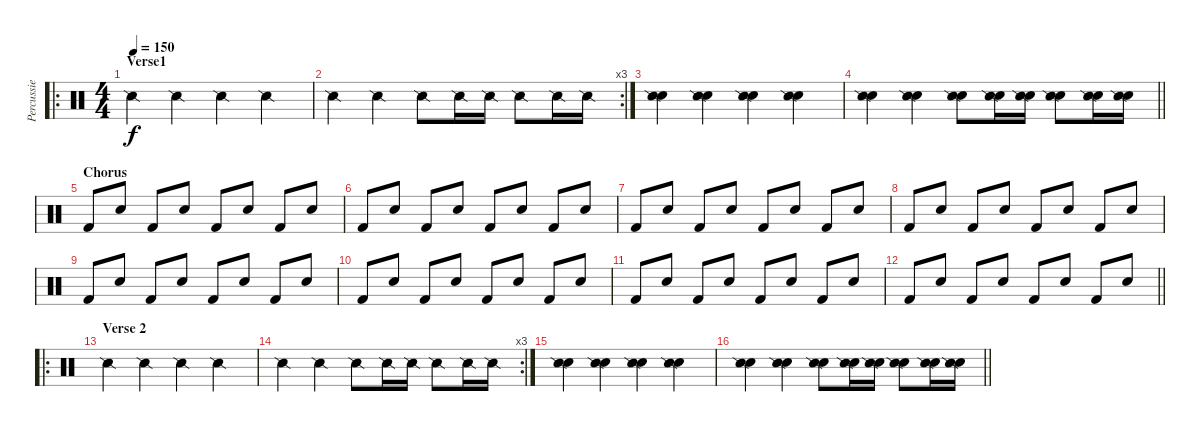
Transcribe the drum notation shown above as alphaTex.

\track ("Percussie" "Percussie") {instrument percussion}
\staff {score}
\articulation defaults
\ro
\ts (4 4)
\section ("" "Verse1")
\tempo 150
\clef neutral
\ks c "Snare (side stick) 2".4{dy f} "Snare (side stick) 2".4 "Snare (side stick) 2".4 "Snare (side stick) 2".4
|
\rc 3 "Snare (side stick) 2".4 "Snare (side stick) 2".4 "Snare (side stick) 2".8 "Snare (side stick) 2".16 "Snare (side stick) 2".16 "Snare (side stick) 2".8 "Snare (side stick) 2".16 "Snare (side stick) 2".16
|
("Snare (hit) 2" "Snare (side stick) 2").4 ("Snare (hit) 2" "Snare (side stick) 2").4 ("Snare (hit) 2" "Snare (side stick) 2").4 ("Snare (hit) 2" "Snare (side stick) 2").4 |
\barLineRight lightlight
("Snare (hit) 2" "Snare (side stick) 2").4 ("Snare (hit) 2" "Snare (side stick) 2").4 ("Snare (hit) 2" "Snare (side stick) 2").8 ("Snare (hit) 2" "Snare (side stick) 2").16 ("Snare (hit) 2" "Snare (side stick) 2").16 ("Snare (hit) 2" "Snare (side stick) 2").8 ("Snare (hit) 2" "Snare (side stick) 2").16 ("Snare (hit) 2" "Snare (side stick) 2").16 |
\section ("" "Chorus")
"Kick (hit) 2".8 "Snare (hit) 2".8 "Kick (hit) 2".8 "Snare (hit) 2".8 "Kick (hit) 2".8 "Snare (hit) 2".8 "Kick (hit) 2".8 "Snare (hit) 2".8 |
"Kick (hit) 2".8 "Snare (hit) 2".8 "Kick (hit) 2".8 "Snare (hit) 2".8 "Kick (hit) 2".8 "Snare (hit) 2".8 "Kick (hit) 2".8 "Snare (hit) 2".8 |
"Kick (hit) 2".8 "Snare (hit) 2".8 "Kick (hit) 2".8 "Snare (hit) 2".8 "Kick (hit) 2".8 "Snare (hit) 2".8 "Kick (hit) 2".8 "Snare (hit) 2".8 |
"Kick (hit) 2".8 "Snare (hit) 2".8 "Kick (hit) 2".8 "Snare (hit) 2".8 "Kick (hit) 2".8 "Snare (hit) 2".8 "Kick (hit) 2".8 "Snare (hit) 2".8 |
"Kick (hit) 2".8 "Snare (hit) 2".8 "Kick (hit) 2".8 "Snare (hit) 2".8 "Kick (hit) 2".8 "Snare (hit) 2".8 "Kick (hit) 2".8 "Snare (hit) 2".8 |
"Kick (hit) 2".8 "Snare (hit) 2".8 "Kick (hit) 2".8 "Snare (hit) 2".8 "Kick (hit) 2".8 "Snare (hit) 2".8 "Kick (hit) 2".8 "Snare (hit) 2".8 |
"Kick (hit) 2".8 "Snare (hit) 2".8 "Kick (hit) 2".8 "Snare (hit) 2".8 "Kick (hit) 2".8 "Snare (hit) 2".8 "Kick (hit) 2".8 "Snare (hit) 2".8 |
\barLineRight lightlight "Kick (hit) 2".8 "Snare (hit) 2".8 "Kick (hit) 2".8 "Snare (hit) 2".8 "Kick (hit) 2".8 "Snare (hit) 2".8 "Kick (hit) 2".8 "Snare (hit) 2".8
|
\ro
\section ("" "Verse 2")
"Snare (side stick) 2".4 "Snare (side stick) 2".4 "Snare (side stick) 2".4 "Snare (side stick) 2".4 |
\rc 3 "Snare (side stick) 2".4 "Snare (side stick) 2".4 "Snare (side stick) 2".8 "Snare (side stick) 2".16 "Snare (side stick) 2".16 "Snare (side stick) 2".8 "Snare (side stick) 2".16 "Snare (side stick) 2".16
|
("Snare (hit) 2" "Snare (side stick) 2").4 ("Snare (hit) 2" "Snare (side stick) 2").4 ("Snare (hit) 2" "Snare (side stick) 2").4 ("Snare (hit) 2" "Snare (side stick) 2").4 |
\barLineRight lightlight
("Snare (hit) 2" "Snare (side stick) 2").4 ("Snare (hit) 2" "Snare (side stick) 2").4 ("Snare (hit) 2" "Snare (side stick) 2").8 ("Snare (hit) 2" "Snare (side stick) 2").16 ("Snare (hit) 2" "Snare (side stick) 2").16 ("Snare (hit) 2" "Snare (side stick) 2").8 ("Snare (hit) 2" "Snare (side stick) 2").16 ("Snare (hit) 2" "Snare (side stick) 2").16
